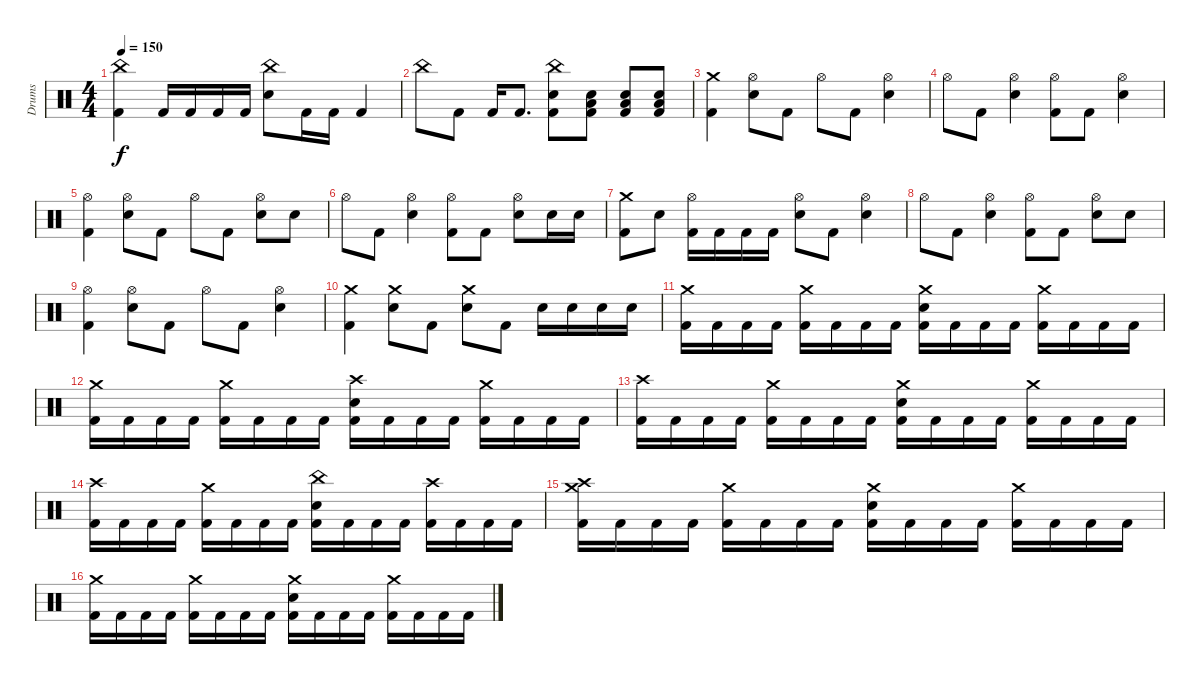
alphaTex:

\track ("Drums" "Drums") {instrument percussion}
\staff {score}
\articulation defaults
\ts (4 4)
\tempo 150
\clef neutral
\ks c
("China (hit)" "Kick (hit) 2").4{dy f} "Kick (hit) 2".16 "Kick (hit) 2".16 "Kick (hit) 2".16 "Kick (hit) 2".16 ("China (hit)" "Electric Snare (hit)").8 "Kick (hit) 2".16 "Kick (hit) 2".16 "Kick (hit) 2".4 |
"China (hit)".8 "Kick (hit) 2".8 "Kick (hit) 2".16 "Kick (hit) 2".8{d} ("China (hit)" "Electric Snare (hit)" "Kick (hit) 2").8 ("Low Floor Tom (hit)" "Electric Snare (hit)" "Kick (hit) 2").8 ("Low Floor Tom (hit)" "Electric Snare (hit)" "Kick (hit) 2").8 ("Low Floor Tom (hit)" "Electric Snare (hit)" "Kick (hit) 2").8 |
("Crash medium (hit)" "Kick (hit) 2").4 ("Hi-Hat (open)" "Electric Snare (hit)").8 "Kick (hit) 2".8 "Hi-Hat (open)".8 "Kick (hit) 2".8 ("Hi-Hat (open)" "Electric Snare (hit)").4 |
"Hi-Hat (open)".8 "Kick (hit) 2".8 ("Hi-Hat (open)" "Electric Snare (hit)").4 ("Hi-Hat (open)" "Kick (hit) 2").8 "Kick (hit) 2".8 ("Hi-Hat (open)" "Electric Snare (hit)").4 |
("Hi-Hat (open)" "Kick (hit) 2").4 ("Hi-Hat (open)" "Electric Snare (hit)").8 "Kick (hit) 2".8 "Hi-Hat (open)".8 "Kick (hit) 2".8 ("Hi-Hat (open)" "Electric Snare (hit)").8 "Electric Snare (hit)".8 |
"Hi-Hat (open)".8 "Kick (hit) 2".8 ("Hi-Hat (open)" "Electric Snare (hit)").4 ("Hi-Hat (open)" "Kick (hit) 2").8 "Kick (hit) 2".8 ("Hi-Hat (open)" "Electric Snare (hit)").8 "Electric Snare (hit)".16 "Electric Snare (hit)".16 |
("Crash medium (hit)" "Kick (hit) 2").8 "Electric Snare (hit)".8 ("Hi-Hat (open)" "Kick (hit) 2").16 "Kick (hit) 2".16 "Kick (hit) 2".16 "Kick (hit) 2".16 ("Hi-Hat (open)" "Electric Snare (hit)").8 "Kick (hit) 2".8 ("Hi-Hat (open)" "Electric Snare (hit)").4 |
"Hi-Hat (open)".8 "Kick (hit) 2".8 ("Hi-Hat (open)" "Electric Snare (hit)").4 ("Hi-Hat (open)" "Kick (hit) 2").8 "Kick (hit) 2".8 ("Hi-Hat (open)" "Electric Snare (hit)").8 "Electric Snare (hit)".8 |
("Hi-Hat (open)" "Kick (hit) 2").4 ("Hi-Hat (open)" "Electric Snare (hit)").8 "Kick (hit) 2".8 "Hi-Hat (open)".8 "Kick (hit) 2".8 ("Hi-Hat (open)" "Electric Snare (hit)").4 |
("Crash medium (hit)" "Kick (hit) 2").4 ("Crash medium (hit)" "Electric Snare (hit)").8 "Kick (hit) 2".8 ("Crash medium (hit)" "Electric Snare (hit)").8 "Kick (hit) 2".8 "Electric Snare (hit)".16 "Electric Snare (hit)".16 "Electric Snare (hit)".16 "Electric Snare (hit)".16 |
("Crash medium (hit)" "Kick (hit) 2").16 "Kick (hit) 2".16 "Kick (hit) 2".16 "Kick (hit) 2".16 ("Crash medium (hit)" "Kick (hit) 2").16 "Kick (hit) 2".16 "Kick (hit) 2".16 "Kick (hit) 2".16 ("Crash medium (hit)" "Electric Snare (hit)" "Kick (hit) 2").16 "Kick (hit) 2".16 "Kick (hit) 2".16 "Kick (hit) 2".16 ("Crash medium (hit)" "Kick (hit) 2").16 "Kick (hit) 2".16 "Kick (hit) 2".16 "Kick (hit) 2".16 |
("Crash medium (hit)" "Kick (hit) 2").16 "Kick (hit) 2".16 "Kick (hit) 2".16 "Kick (hit) 2".16 ("Crash medium (hit)" "Kick (hit) 2").16 "Kick (hit) 2".16 "Kick (hit) 2".16 "Kick (hit) 2".16 ("Crash high (hit)" "Electric Snare (hit)" "Kick (hit) 2").16 "Kick (hit) 2".16 "Kick (hit) 2".16 "Kick (hit) 2".16 ("Crash medium (hit)" "Kick (hit) 2").16 "Kick (hit) 2".16 "Kick (hit) 2".16 "Kick (hit) 2".16 |
("Crash high (hit)" "Kick (hit) 2").16 "Kick (hit) 2".16 "Kick (hit) 2".16 "Kick (hit) 2".16 ("Crash medium (hit)" "Kick (hit) 2").16 "Kick (hit) 2".16 "Kick (hit) 2".16 "Kick (hit) 2".16 ("Crash medium (hit)" "Electric Snare (hit)" "Kick (hit) 2").16 "Kick (hit) 2".16 "Kick (hit) 2".16 "Kick (hit) 2".16 ("Crash medium (hit)" "Kick (hit) 2").16 "Kick (hit) 2".16 "Kick (hit) 2".16 "Kick (hit) 2".16 |
("Crash high (hit)" "Kick (hit) 2").16 "Kick (hit) 2".16 "Kick (hit) 2".16 "Kick (hit) 2".16 ("Crash medium (hit)" "Kick (hit) 2").16 "Kick (hit) 2".16 "Kick (hit) 2".16 "Kick (hit) 2".16 ("China (hit)" "Electric Snare (hit)" "Kick (hit) 2").16 "Kick (hit) 2".16 "Kick (hit) 2".16 "Kick (hit) 2".16 ("Crash high (hit)" "Kick (hit) 2").16 "Kick (hit) 2".16 "Kick (hit) 2".16 "Kick (hit) 2".16 |
("Crash medium (hit)" "Crash high (hit)" "Kick (hit) 2").16 "Kick (hit) 2".16 "Kick (hit) 2".16 "Kick (hit) 2".16 ("Crash medium (hit)" "Kick (hit) 2").16 "Kick (hit) 2".16 "Kick (hit) 2".16 "Kick (hit) 2".16 ("Crash medium (hit)" "Electric Snare (hit)" "Kick (hit) 2").16 "Kick (hit) 2".16 "Kick (hit) 2".16 "Kick (hit) 2".16 ("Crash medium (hit)" "Kick (hit) 2").16 "Kick (hit) 2".16 "Kick (hit) 2".16 "Kick (hit) 2".16 |
("Crash medium (hit)" "Kick (hit) 2").16 "Kick (hit) 2".16 "Kick (hit) 2".16 "Kick (hit) 2".16 ("Crash medium (hit)" "Kick (hit) 2").16 "Kick (hit) 2".16 "Kick (hit) 2".16 "Kick (hit) 2".16 ("Crash medium (hit)" "Electric Snare (hit)" "Kick (hit) 2").16 "Kick (hit) 2".16 "Kick (hit) 2".16 "Kick (hit) 2".16 ("Crash medium (hit)" "Kick (hit) 2").16 "Kick (hit) 2".16 "Kick (hit) 2".16 "Kick (hit) 2".16
